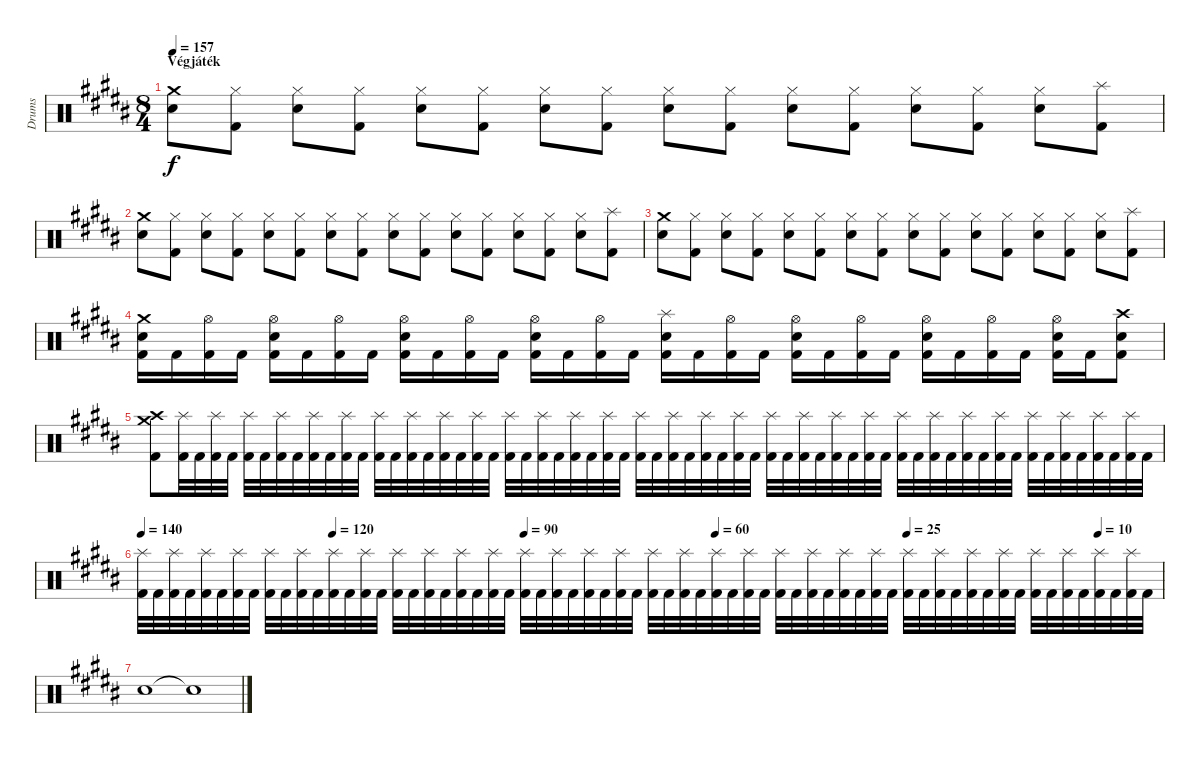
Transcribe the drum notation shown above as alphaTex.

\track ("Drums" "Drums") {instrument percussion}
\staff {score}
\articulation defaults
\ts (8 4)
\section ("" "Végjáték")
\tempo 157
\clef neutral
\ks g#minor
("Crash medium (hit)" "Snare (hit) 2").8{dy f} ("Hi-Hat (closed)" "Kick (hit) 2").8 ("Hi-Hat (closed)" "Snare (hit) 2").8 ("Hi-Hat (closed)" "Kick (hit) 2").8 ("Hi-Hat (closed)" "Snare (hit) 2").8 ("Hi-Hat (closed)" "Kick (hit) 2").8 ("Hi-Hat (closed)" "Snare (hit) 2").8 ("Hi-Hat (closed)" "Kick (hit) 2").8 ("Hi-Hat (closed)" "Snare (hit) 2").8 ("Hi-Hat (closed)" "Kick (hit) 2").8 ("Hi-Hat (closed)" "Snare (hit) 2").8 ("Hi-Hat (closed)" "Kick (hit) 2").8 ("Hi-Hat (closed)" "Snare (hit) 2").8 ("Hi-Hat (closed)" "Kick (hit) 2").8 ("Hi-Hat (closed)" "Snare (hit) 2").8 ("Splash (hit)" "Kick (hit) 2").8 |
("Crash medium (hit)" "Snare (hit) 2").8 ("Hi-Hat (closed)" "Kick (hit) 2").8 ("Hi-Hat (closed)" "Snare (hit) 2").8 ("Hi-Hat (closed)" "Kick (hit) 2").8 ("Hi-Hat (closed)" "Snare (hit) 2").8 ("Hi-Hat (closed)" "Kick (hit) 2").8 ("Hi-Hat (closed)" "Snare (hit) 2").8 ("Hi-Hat (closed)" "Kick (hit) 2").8 ("Hi-Hat (closed)" "Snare (hit) 2").8 ("Hi-Hat (closed)" "Kick (hit) 2").8 ("Hi-Hat (closed)" "Snare (hit) 2").8 ("Hi-Hat (closed)" "Kick (hit) 2").8 ("Hi-Hat (closed)" "Snare (hit) 2").8 ("Hi-Hat (closed)" "Kick (hit) 2").8 ("Hi-Hat (closed)" "Snare (hit) 2").8 ("Splash (hit)" "Kick (hit) 2").8 |
("Crash medium (hit)" "Snare (hit) 2").8 ("Hi-Hat (closed)" "Kick (hit) 2").8 ("Hi-Hat (closed)" "Snare (hit) 2").8 ("Hi-Hat (closed)" "Kick (hit) 2").8 ("Hi-Hat (closed)" "Snare (hit) 2").8 ("Hi-Hat (closed)" "Kick (hit) 2").8 ("Hi-Hat (closed)" "Snare (hit) 2").8 ("Hi-Hat (closed)" "Kick (hit) 2").8 ("Hi-Hat (closed)" "Snare (hit) 2").8 ("Hi-Hat (closed)" "Kick (hit) 2").8 ("Hi-Hat (closed)" "Snare (hit) 2").8 ("Hi-Hat (closed)" "Kick (hit) 2").8 ("Hi-Hat (closed)" "Snare (hit) 2").8 ("Hi-Hat (closed)" "Kick (hit) 2").8 ("Hi-Hat (closed)" "Snare (hit) 2").8 ("Splash (hit)" "Kick (hit) 2").8 |
("Crash medium (hit)" "Snare (hit) 2" "Kick (hit) 2").16 "Kick (hit) 2".16 ("Hi-Hat (open)" "Kick (hit) 2").16 "Kick (hit) 2".16 ("Hi-Hat (open)" "Snare (hit) 2" "Kick (hit) 2").16 "Kick (hit) 2".16 ("Hi-Hat (open)" "Kick (hit) 2").16 "Kick (hit) 2".16 ("Hi-Hat (open)" "Snare (hit) 2" "Kick (hit) 2").16 "Kick (hit) 2".16 ("Hi-Hat (open)" "Kick (hit) 2").16 "Kick (hit) 2".16 ("Hi-Hat (open)" "Snare (hit) 2" "Kick (hit) 2").16 "Kick (hit) 2".16 ("Hi-Hat (open)" "Kick (hit) 2").16 "Kick (hit) 2".16 ("Splash (hit)" "Snare (hit) 2" "Kick (hit) 2").16 "Kick (hit) 2".16 ("Hi-Hat (open)" "Kick (hit) 2").16 "Kick (hit) 2".16 ("Hi-Hat (open)" "Snare (hit) 2" "Kick (hit) 2").16 "Kick (hit) 2".16 ("Hi-Hat (open)" "Kick (hit) 2").16 "Kick (hit) 2".16 ("Hi-Hat (open)" "Snare (hit) 2" "Kick (hit) 2").16 "Kick (hit) 2".16 ("Hi-Hat (open)" "Kick (hit) 2").16 "Kick (hit) 2".16 ("Hi-Hat (open)" "Snare (hit) 2" "Kick (hit) 2").16 "Kick (hit) 2".16 ("Crash high (hit)" "Snare (hit) 2" "Kick (hit) 2").8 |
("Crash medium (hit)" "Crash high (hit)" "Kick (hit) 2").8 ("Splash (hit)" "Kick (hit) 2").32 "Kick (hit) 2".32 ("Splash (hit)" "Kick (hit) 2").32 "Kick (hit) 2".32 ("Splash (hit)" "Kick (hit) 2").32 "Kick (hit) 2".32 ("Splash (hit)" "Kick (hit) 2").32 "Kick (hit) 2".32 ("Splash (hit)" "Kick (hit) 2").32 "Kick (hit) 2".32 ("Splash (hit)" "Kick (hit) 2").32 "Kick (hit) 2".32 ("Splash (hit)" "Kick (hit) 2").32 "Kick (hit) 2".32 ("Splash (hit)" "Kick (hit) 2").32 "Kick (hit) 2".32 ("Splash (hit)" "Kick (hit) 2").32 "Kick (hit) 2".32 ("Splash (hit)" "Kick (hit) 2").32 "Kick (hit) 2".32 ("Splash (hit)" "Kick (hit) 2").32 "Kick (hit) 2".32 ("Splash (hit)" "Kick (hit) 2").32 "Kick (hit) 2".32 ("Splash (hit)" "Kick (hit) 2").32 "Kick (hit) 2".32 ("Splash (hit)" "Kick (hit) 2").32 "Kick (hit) 2".32 ("Splash (hit)" "Kick (hit) 2").32 "Kick (hit) 2".32 ("Splash (hit)" "Kick (hit) 2").32 "Kick (hit) 2".32 ("Splash (hit)" "Kick (hit) 2").32 "Kick (hit) 2".32 ("Splash (hit)" "Kick (hit) 2").32 "Kick (hit) 2".32 ("Splash (hit)" "Kick (hit) 2").32 "Kick (hit) 2".32 ("Splash (hit)" "Kick (hit) 2").32 "Kick (hit) 2".32 ("Splash (hit)" "Kick (hit) 2").32 "Kick (hit) 2".32 ("Splash (hit)" "Kick (hit) 2").32 "Kick (hit) 2".32 ("Splash (hit)" "Kick (hit) 2").32 "Kick (hit) 2".32 ("Splash (hit)" "Kick (hit) 2").32 "Kick (hit) 2".32 ("Splash (hit)" "Kick (hit) 2").32 "Kick (hit) 2".32 ("Splash (hit)" "Kick (hit) 2").32 "Kick (hit) 2".32 ("Splash (hit)" "Kick (hit) 2").32 "Kick (hit) 2".32 ("Splash (hit)" "Kick (hit) 2").32 "Kick (hit) 2".32 ("Splash (hit)" "Kick (hit) 2").32 "Kick (hit) 2".32 ("Splash (hit)" "Kick (hit) 2").32 "Kick (hit) 2".32 |
\tempo 140
\tempo (120 0.1875)
\tempo (90 0.375)
\tempo (60 0.5625)
\tempo (25 0.75)
\tempo (10 0.9375)
("Splash (hit)" "Kick (hit) 2").32 "Kick (hit) 2".32 ("Splash (hit)" "Kick (hit) 2").32 "Kick (hit) 2".32 ("Splash (hit)" "Kick (hit) 2").32 "Kick (hit) 2".32 ("Splash (hit)" "Kick (hit) 2").32 "Kick (hit) 2".32 ("Splash (hit)" "Kick (hit) 2").32 "Kick (hit) 2".32 ("Splash (hit)" "Kick (hit) 2").32 "Kick (hit) 2".32 ("Splash (hit)" "Kick (hit) 2").32 "Kick (hit) 2".32 ("Splash (hit)" "Kick (hit) 2").32 "Kick (hit) 2".32 ("Splash (hit)" "Kick (hit) 2").32 "Kick (hit) 2".32 ("Splash (hit)" "Kick (hit) 2").32 "Kick (hit) 2".32 ("Splash (hit)" "Kick (hit) 2").32 "Kick (hit) 2".32 ("Splash (hit)" "Kick (hit) 2").32 "Kick (hit) 2".32 ("Splash (hit)" "Kick (hit) 2").32 "Kick (hit) 2".32 ("Splash (hit)" "Kick (hit) 2").32 "Kick (hit) 2".32 ("Splash (hit)" "Kick (hit) 2").32 "Kick (hit) 2".32 ("Splash (hit)" "Kick (hit) 2").32 "Kick (hit) 2".32 ("Splash (hit)" "Kick (hit) 2").32 "Kick (hit) 2".32 ("Splash (hit)" "Kick (hit) 2").32 "Kick (hit) 2".32 ("Splash (hit)" "Kick (hit) 2").32 "Kick (hit) 2".32 ("Splash (hit)" "Kick (hit) 2").32 "Kick (hit) 2".32 ("Splash (hit)" "Kick (hit) 2").32 "Kick (hit) 2".32 ("Splash (hit)" "Kick (hit) 2").32 "Kick (hit) 2".32 ("Splash (hit)" "Kick (hit) 2").32 "Kick (hit) 2".32 ("Splash (hit)" "Kick (hit) 2").32 "Kick (hit) 2".32 ("Splash (hit)" "Kick (hit) 2").32 "Kick (hit) 2".32 ("Splash (hit)" "Kick (hit) 2").32 "Kick (hit) 2".32 ("Splash (hit)" "Kick (hit) 2").32 "Kick (hit) 2".32 ("Splash (hit)" "Kick (hit) 2").32 "Kick (hit) 2".32 ("Splash (hit)" "Kick (hit) 2").32 "Kick (hit) 2".32 ("Splash (hit)" "Kick (hit) 2").32 "Kick (hit) 2".32 ("Splash (hit)" "Kick (hit) 2").32 "Kick (hit) 2".32 ("Splash (hit)" "Kick (hit) 2").32 "Kick (hit) 2".32 |
"Snare (hit) 2".1 "Snare (hit)"{t}.1
